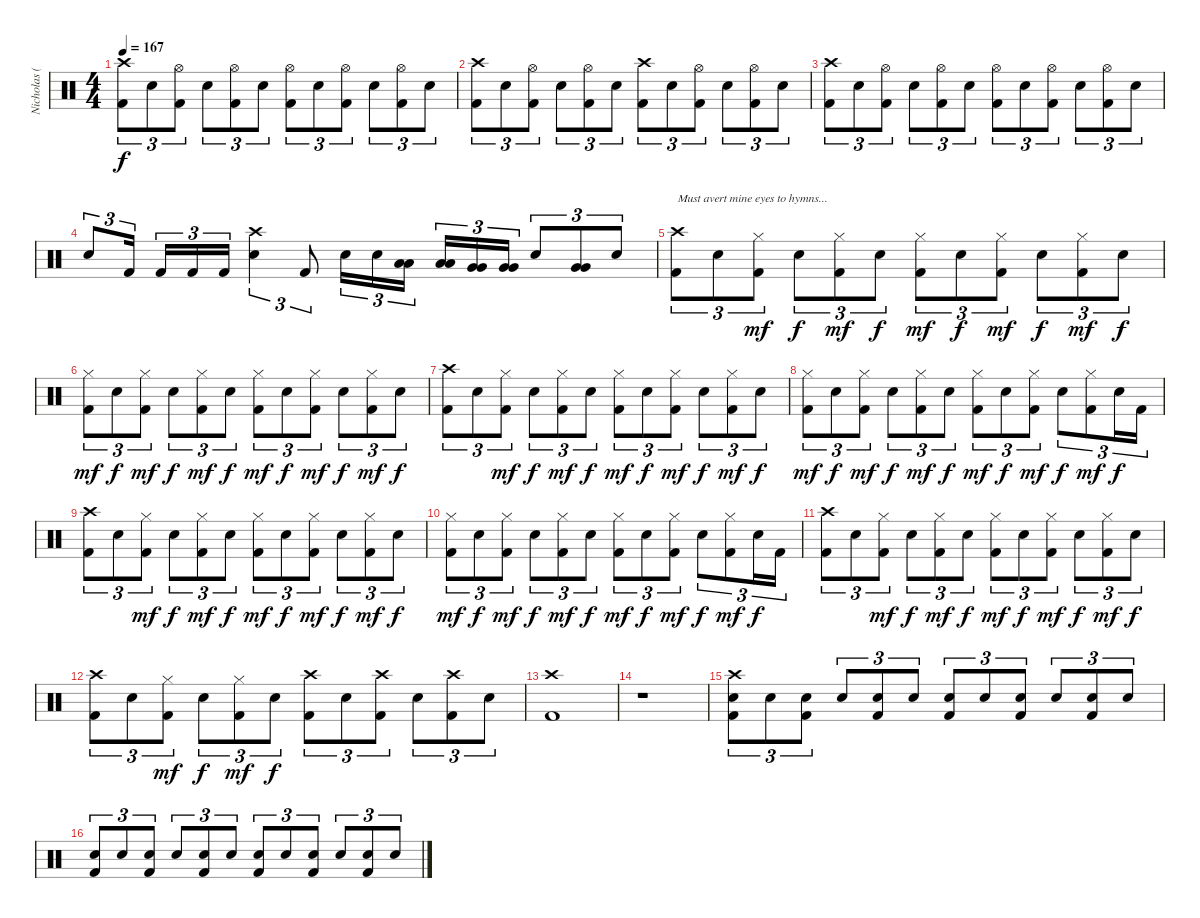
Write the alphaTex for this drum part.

\track ("Nicholas (Drums)" "Nicholas (") {instrument percussion}
\staff {score}
\articulation defaults
\ts (4 4)
\tempo 167
\clef neutral
\ks c
("Crash high (hit)" "Kick (hit) 2").8{tu (3 2) dy f} "Electric Snare (hit)".8{tu (3 2)} ("Hi-Hat (open)" "Kick (hit) 2").8{tu (3 2)} "Electric Snare (hit)".8{tu (3 2)} ("Hi-Hat (open)" "Kick (hit) 2").8{tu (3 2)} "Electric Snare (hit)".8{tu (3 2)} ("Hi-Hat (open)" "Kick (hit) 2").8{tu (3 2)} "Electric Snare (hit)".8{tu (3 2)} ("Hi-Hat (open)" "Kick (hit) 2").8{tu (3 2)} "Electric Snare (hit)".8{tu (3 2)} ("Hi-Hat (open)" "Kick (hit) 2").8{tu (3 2)} "Electric Snare (hit)".8{tu (3 2)} |
("Crash high (hit)" "Kick (hit) 2").8{tu (3 2)} "Electric Snare (hit)".8{tu (3 2)} ("Hi-Hat (open)" "Kick (hit) 2").8{tu (3 2)} "Electric Snare (hit)".8{tu (3 2)} ("Hi-Hat (open)" "Kick (hit) 2").8{tu (3 2)} "Electric Snare (hit)".8{tu (3 2)} ("Crash high (hit)" "Kick (hit) 2").8{tu (3 2)} "Electric Snare (hit)".8{tu (3 2)} ("Hi-Hat (open)" "Kick (hit) 2").8{tu (3 2)} "Electric Snare (hit)".8{tu (3 2)} ("Hi-Hat (open)" "Kick (hit) 2").8{tu (3 2)} "Electric Snare (hit)".8{tu (3 2)} |
("Crash high (hit)" "Kick (hit) 2").8{tu (3 2)} "Electric Snare (hit)".8{tu (3 2)} ("Hi-Hat (open)" "Kick (hit) 2").8{tu (3 2)} "Electric Snare (hit)".8{tu (3 2)} ("Hi-Hat (open)" "Kick (hit) 2").8{tu (3 2)} "Electric Snare (hit)".8{tu (3 2)} ("Hi-Hat (open)" "Kick (hit) 2").8{tu (3 2)} "Electric Snare (hit)".8{tu (3 2)} ("Hi-Hat (open)" "Kick (hit) 2").8{tu (3 2)} "Electric Snare (hit)".8{tu (3 2)} ("Hi-Hat (open)" "Kick (hit) 2").8{tu (3 2)} "Electric Snare (hit)".8{tu (3 2)} |
"Electric Snare (hit)".8{tu (3 2)} "Kick (hit) 2".16{tu (3 2)} "Kick (hit) 2".16{tu (3 2)} "Kick (hit) 2".16{tu (3 2)} "Kick (hit) 2".16{tu (3 2)} ("Crash high (hit)" "Electric Snare (hit)").4{tu (3 2)} "Kick (hit) 2".8{tu (3 2)} "Electric Snare (hit)".16{tu (3 2)} "Electric Snare (hit)".16{tu (3 2)} ("Low Tom (hit)" "Low Tom (hit)").16{tu (3 2)} ("Low Tom (hit)" "Low Tom (hit)").16{tu (3 2)} ("Very Low Tom (hit)" "Very Low Tom (hit)").16{tu (3 2)} ("Very Low Tom (hit)" "Very Low Tom (hit)").16{tu (3 2)} "Electric Snare (hit)".8{tu (3 2)} ("Very Low Tom (hit)" "Very Low Tom (hit)").8{tu (3 2)} "Electric Snare (hit)".8{tu (3 2)} |
("Crash high (hit)" "Kick (hit) 2").8{tu (3 2) txt "Must avert mine eyes to hymns..."} "Electric Snare (hit)".8{tu (3 2)} ("Hi-Hat (closed)" "Kick (hit) 2").8{tu (3 2) dy mf} "Electric Snare (hit)".8{tu (3 2) dy f} ("Hi-Hat (closed)" "Kick (hit) 2").8{tu (3 2) dy mf} "Electric Snare (hit)".8{tu (3 2) dy f} ("Hi-Hat (closed)" "Kick (hit) 2").8{tu (3 2) dy mf} "Electric Snare (hit)".8{tu (3 2) dy f} ("Hi-Hat (closed)" "Kick (hit) 2").8{tu (3 2) dy mf} "Electric Snare (hit)".8{tu (3 2) dy f} ("Hi-Hat (closed)" "Kick (hit) 2").8{tu (3 2) dy mf} "Electric Snare (hit)".8{tu (3 2) dy f} |
("Hi-Hat (closed)" "Kick (hit) 2").8{tu (3 2) dy mf} "Electric Snare (hit)".8{tu (3 2) dy f} ("Hi-Hat (closed)" "Kick (hit) 2").8{tu (3 2) dy mf} "Electric Snare (hit)".8{tu (3 2) dy f} ("Hi-Hat (closed)" "Kick (hit) 2").8{tu (3 2) dy mf} "Electric Snare (hit)".8{tu (3 2) dy f} ("Hi-Hat (closed)" "Kick (hit) 2").8{tu (3 2) dy mf} "Electric Snare (hit)".8{tu (3 2) dy f} ("Hi-Hat (closed)" "Kick (hit) 2").8{tu (3 2) dy mf} "Electric Snare (hit)".8{tu (3 2) dy f} ("Hi-Hat (closed)" "Kick (hit) 2").8{tu (3 2) dy mf} "Electric Snare (hit)".8{tu (3 2) dy f} |
("Crash high (hit)" "Kick (hit) 2").8{tu (3 2)} "Electric Snare (hit)".8{tu (3 2)} ("Hi-Hat (closed)" "Kick (hit) 2").8{tu (3 2) dy mf} "Electric Snare (hit)".8{tu (3 2) dy f} ("Hi-Hat (closed)" "Kick (hit) 2").8{tu (3 2) dy mf} "Electric Snare (hit)".8{tu (3 2) dy f} ("Hi-Hat (closed)" "Kick (hit) 2").8{tu (3 2) dy mf} "Electric Snare (hit)".8{tu (3 2) dy f} ("Hi-Hat (closed)" "Kick (hit) 2").8{tu (3 2) dy mf} "Electric Snare (hit)".8{tu (3 2) dy f} ("Hi-Hat (closed)" "Kick (hit) 2").8{tu (3 2) dy mf} "Electric Snare (hit)".8{tu (3 2) dy f} |
("Hi-Hat (closed)" "Kick (hit) 2").8{tu (3 2) dy mf} "Electric Snare (hit)".8{tu (3 2) dy f} ("Hi-Hat (closed)" "Kick (hit) 2").8{tu (3 2) dy mf} "Electric Snare (hit)".8{tu (3 2) dy f} ("Hi-Hat (closed)" "Kick (hit) 2").8{tu (3 2) dy mf} "Electric Snare (hit)".8{tu (3 2) dy f} ("Hi-Hat (closed)" "Kick (hit) 2").8{tu (3 2) dy mf} "Electric Snare (hit)".8{tu (3 2) dy f} ("Hi-Hat (closed)" "Kick (hit) 2").8{tu (3 2) dy mf} "Electric Snare (hit)".8{tu (3 2) dy f} ("Hi-Hat (closed)" "Kick (hit) 2").8{tu (3 2) dy mf} "Electric Snare (hit)".16{tu (3 2) dy f} "Kick (hit) 2".16{tu (3 2)} |
("Crash high (hit)" "Kick (hit) 2").8{tu (3 2)} "Electric Snare (hit)".8{tu (3 2)} ("Hi-Hat (closed)" "Kick (hit) 2").8{tu (3 2) dy mf} "Electric Snare (hit)".8{tu (3 2) dy f} ("Hi-Hat (closed)" "Kick (hit) 2").8{tu (3 2) dy mf} "Electric Snare (hit)".8{tu (3 2) dy f} ("Hi-Hat (closed)" "Kick (hit) 2").8{tu (3 2) dy mf} "Electric Snare (hit)".8{tu (3 2) dy f} ("Hi-Hat (closed)" "Kick (hit) 2").8{tu (3 2) dy mf} "Electric Snare (hit)".8{tu (3 2) dy f} ("Hi-Hat (closed)" "Kick (hit) 2").8{tu (3 2) dy mf} "Electric Snare (hit)".8{tu (3 2) dy f} |
("Hi-Hat (closed)" "Kick (hit) 2").8{tu (3 2) dy mf} "Electric Snare (hit)".8{tu (3 2) dy f} ("Hi-Hat (closed)" "Kick (hit) 2").8{tu (3 2) dy mf} "Electric Snare (hit)".8{tu (3 2) dy f} ("Hi-Hat (closed)" "Kick (hit) 2").8{tu (3 2) dy mf} "Electric Snare (hit)".8{tu (3 2) dy f} ("Hi-Hat (closed)" "Kick (hit) 2").8{tu (3 2) dy mf} "Electric Snare (hit)".8{tu (3 2) dy f} ("Hi-Hat (closed)" "Kick (hit) 2").8{tu (3 2) dy mf} "Electric Snare (hit)".8{tu (3 2) dy f} ("Hi-Hat (closed)" "Kick (hit) 2").8{tu (3 2) dy mf} "Electric Snare (hit)".16{tu (3 2) dy f} "Kick (hit) 2".16{tu (3 2)} |
("Crash high (hit)" "Kick (hit) 2").8{tu (3 2)} "Electric Snare (hit)".8{tu (3 2)} ("Hi-Hat (closed)" "Kick (hit) 2").8{tu (3 2) dy mf} "Electric Snare (hit)".8{tu (3 2) dy f} ("Hi-Hat (closed)" "Kick (hit) 2").8{tu (3 2) dy mf} "Electric Snare (hit)".8{tu (3 2) dy f} ("Hi-Hat (closed)" "Kick (hit) 2").8{tu (3 2) dy mf} "Electric Snare (hit)".8{tu (3 2) dy f} ("Hi-Hat (closed)" "Kick (hit) 2").8{tu (3 2) dy mf} "Electric Snare (hit)".8{tu (3 2) dy f} ("Hi-Hat (closed)" "Kick (hit) 2").8{tu (3 2) dy mf} "Electric Snare (hit)".8{tu (3 2) dy f} |
("Crash high (hit)" "Kick (hit) 2").8{tu (3 2)} "Electric Snare (hit)".8{tu (3 2)} ("Hi-Hat (closed)" "Kick (hit) 2").8{tu (3 2) dy mf} "Electric Snare (hit)".8{tu (3 2) dy f} ("Hi-Hat (closed)" "Kick (hit) 2").8{tu (3 2) dy mf} "Electric Snare (hit)".8{tu (3 2) dy f} ("Crash high (hit)" "Kick (hit) 2").8{tu (3 2)} "Electric Snare (hit)".8{tu (3 2)} ("Crash high (hit)" "Kick (hit) 2").8{tu (3 2)} "Electric Snare (hit)".8{tu (3 2)} ("Crash high (hit)" "Kick (hit) 2").8{tu (3 2)} "Electric Snare (hit)".8{tu (3 2)} |
("Crash high (hit)" "Kick (hit) 2").1 |
r.1 |
("Crash high (hit)" "Electric Snare (hit)" "Kick (hit) 2").8{tu (3 2)} "Electric Snare (hit)".8{tu (3 2)} ("Electric Snare (hit)" "Kick (hit) 2").8{tu (3 2)} "Electric Snare (hit)".8{tu (3 2)} ("Electric Snare (hit)" "Kick (hit) 2").8{tu (3 2)} "Electric Snare (hit)".8{tu (3 2)} ("Electric Snare (hit)" "Kick (hit) 2").8{tu (3 2)} "Electric Snare (hit)".8{tu (3 2)} ("Electric Snare (hit)" "Kick (hit) 2").8{tu (3 2)} "Electric Snare (hit)".8{tu (3 2)} ("Electric Snare (hit)" "Kick (hit) 2").8{tu (3 2)} "Electric Snare (hit)".8{tu (3 2)} |
("Electric Snare (hit)" "Kick (hit) 2").8{tu (3 2)} "Electric Snare (hit)".8{tu (3 2)} ("Electric Snare (hit)" "Kick (hit) 2").8{tu (3 2)} "Electric Snare (hit)".8{tu (3 2)} ("Electric Snare (hit)" "Kick (hit) 2").8{tu (3 2)} "Electric Snare (hit)".8{tu (3 2)} ("Electric Snare (hit)" "Kick (hit) 2").8{tu (3 2)} "Electric Snare (hit)".8{tu (3 2)} ("Electric Snare (hit)" "Kick (hit) 2").8{tu (3 2)} "Electric Snare (hit)".8{tu (3 2)} ("Electric Snare (hit)" "Kick (hit) 2").8{tu (3 2)} "Electric Snare (hit)".8{tu (3 2)}
